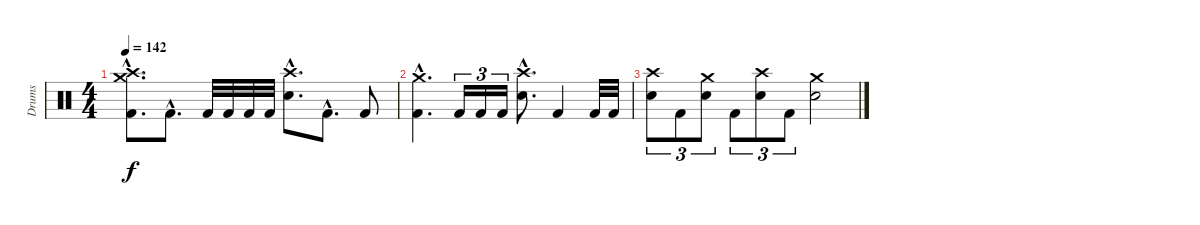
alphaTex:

\track ("Drums" "Drums") {instrument percussion}
\staff {score}
\articulation defaults
\ts (4 4)
\tempo 142
\clef neutral
\ks c
("Crash high (hit)"{hac} "Crash medium (hit)"{hac} "Kick (hit) 2"{hac}).8{d dy f} "Kick (hit) 2"{hac}.8{d} "Kick (hit) 2".32 "Kick (hit) 2".32 "Kick (hit) 2".32 "Kick (hit) 2".32 ("Crash high (hit)"{hac} "Snare (hit) 2"{hac}).8{d} "Kick (hit) 2"{hac}.8{d} "Kick (hit) 2".8 |
("Crash medium (hit)"{hac} "Kick (hit) 2"{hac}).4{d} "Kick (hit) 2".16{tu (3 2)} "Kick (hit) 2".16{tu (3 2)} "Kick (hit) 2".16{tu (3 2)} ("Crash high (hit)"{hac} "Snare (hit) 2"{hac}).8{d} "Kick (hit) 2".4 "Kick (hit) 2".32 "Kick (hit) 2".32 |
("Crash high (hit)" "Snare (hit) 2").8{tu (3 2)} "Kick (hit) 2".8{tu (3 2)} ("Crash medium (hit)" "Snare (hit) 2").8{tu (3 2)} "Kick (hit) 2".8{tu (3 2)} ("Crash high (hit)" "Snare (hit) 2").8{tu (3 2)} "Kick (hit) 2".8{tu (3 2)} ("Crash medium (hit)" "Snare (hit) 2").2
